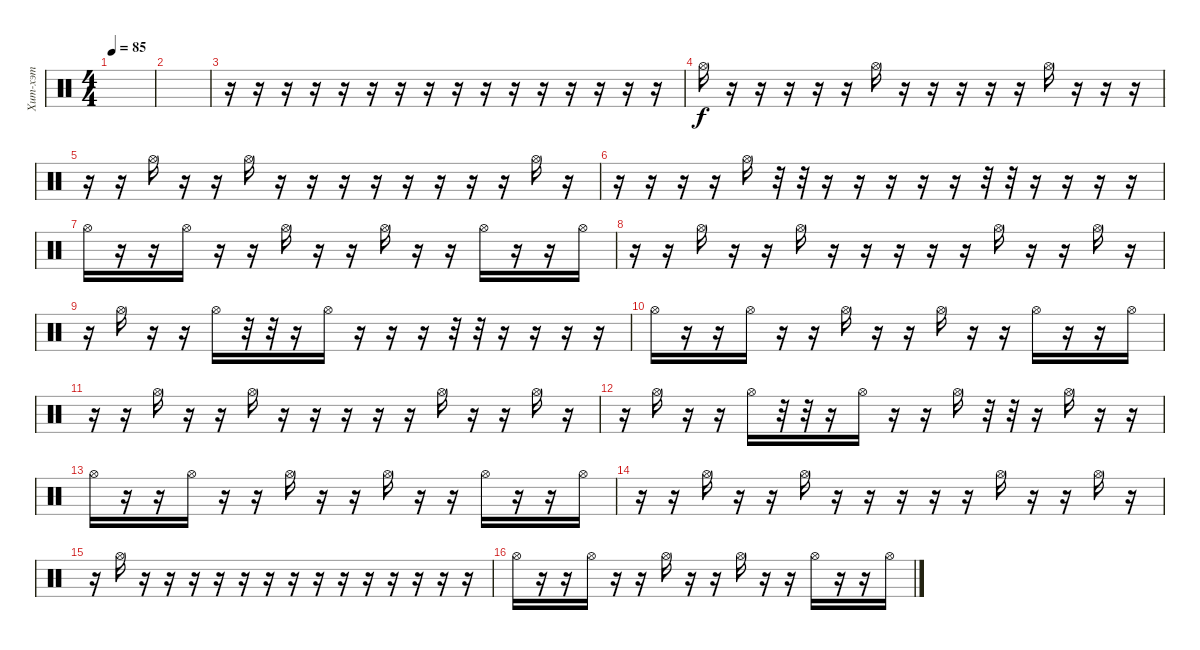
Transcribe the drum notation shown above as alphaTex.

\track ("Хит-хэт" "Хит-хэт") {instrument percussion}
\staff {score}
\articulation defaults
\ts (4 4)
\tempo 85
\clef neutral
\ks c
|
|
r.16 r.16 r.16 r.16 r.16 r.16 r.16 r.16 r.16 r.16 r.16 r.16 r.16 r.16 r.16 r.16 |
"Hi-Hat (open)".16 r.16 r.16 r.16 r.16 r.16 "Hi-Hat (open)".16 r.16 r.16 r.16 r.16 r.16 "Hi-Hat (open)".16 r.16 r.16 r.16 |
r.16 r.16 "Hi-Hat (open)".16 r.16 r.16 "Hi-Hat (open)".16 r.16 r.16 r.16 r.16 r.16 r.16 r.16 r.16 "Hi-Hat (open)".16 r.16 |
r.16 r.16 r.16 r.16 "Hi-Hat (open)".16 r.32 r.32 r.16 r.16 r.16 r.16 r.16 r.32 r.32 r.16 r.16 r.16 r.16 |
"Hi-Hat (open)".16 r.16 r.16 "Hi-Hat (open)".16 r.16 r.16 "Hi-Hat (open)".16 r.16 r.16 "Hi-Hat (open)".16 r.16 r.16 "Hi-Hat (open)".16 r.16 r.16 "Hi-Hat (open)".16 |
r.16 r.16 "Hi-Hat (open)".16 r.16 r.16 "Hi-Hat (open)".16 r.16 r.16 r.16 r.16 r.16 "Hi-Hat (open)".16 r.16 r.16 "Hi-Hat (open)".16 r.16 |
r.16 "Hi-Hat (open)".16 r.16 r.16 "Hi-Hat (open)".16 r.32 r.32 r.16 "Hi-Hat (open)".16 r.16 r.16 r.16 r.32 r.32 r.16 r.16 r.16 r.16 |
"Hi-Hat (open)".16 r.16 r.16 "Hi-Hat (open)".16 r.16 r.16 "Hi-Hat (open)".16 r.16 r.16 "Hi-Hat (open)".16 r.16 r.16 "Hi-Hat (open)".16 r.16 r.16 "Hi-Hat (open)".16 |
r.16 r.16 "Hi-Hat (open)".16 r.16 r.16 "Hi-Hat (open)".16 r.16 r.16 r.16 r.16 r.16 "Hi-Hat (open)".16 r.16 r.16 "Hi-Hat (open)".16 r.16 |
r.16 "Hi-Hat (open)".16 r.16 r.16 "Hi-Hat (open)".16 r.32 r.32 r.16 "Hi-Hat (open)".16 r.16 r.16 "Hi-Hat (open)".16 r.32 r.32 r.16 "Hi-Hat (open)".16 r.16 r.16 |
"Hi-Hat (open)".16 r.16 r.16 "Hi-Hat (open)".16 r.16 r.16 "Hi-Hat (open)".16 r.16 r.16 "Hi-Hat (open)".16 r.16 r.16 "Hi-Hat (open)".16 r.16 r.16 "Hi-Hat (open)".16 |
r.16 r.16 "Hi-Hat (open)".16 r.16 r.16 "Hi-Hat (open)".16 r.16 r.16 r.16 r.16 r.16 "Hi-Hat (open)".16 r.16 r.16 "Hi-Hat (open)".16 r.16 |
r.16 "Hi-Hat (open)".16 r.16 r.16{volume 9} r.16{volume 16} r.16 r.16 r.16 r.16 r.16 r.16 r.16 r.16 r.16 r.16 r.16{volume 16} |
"Hi-Hat (open)".16 r.16 r.16 "Hi-Hat (open)".16 r.16 r.16 "Hi-Hat (open)".16 r.16 r.16 "Hi-Hat (open)".16 r.16 r.16 "Hi-Hat (open)".16 r.16 r.16 "Hi-Hat (open)".16
